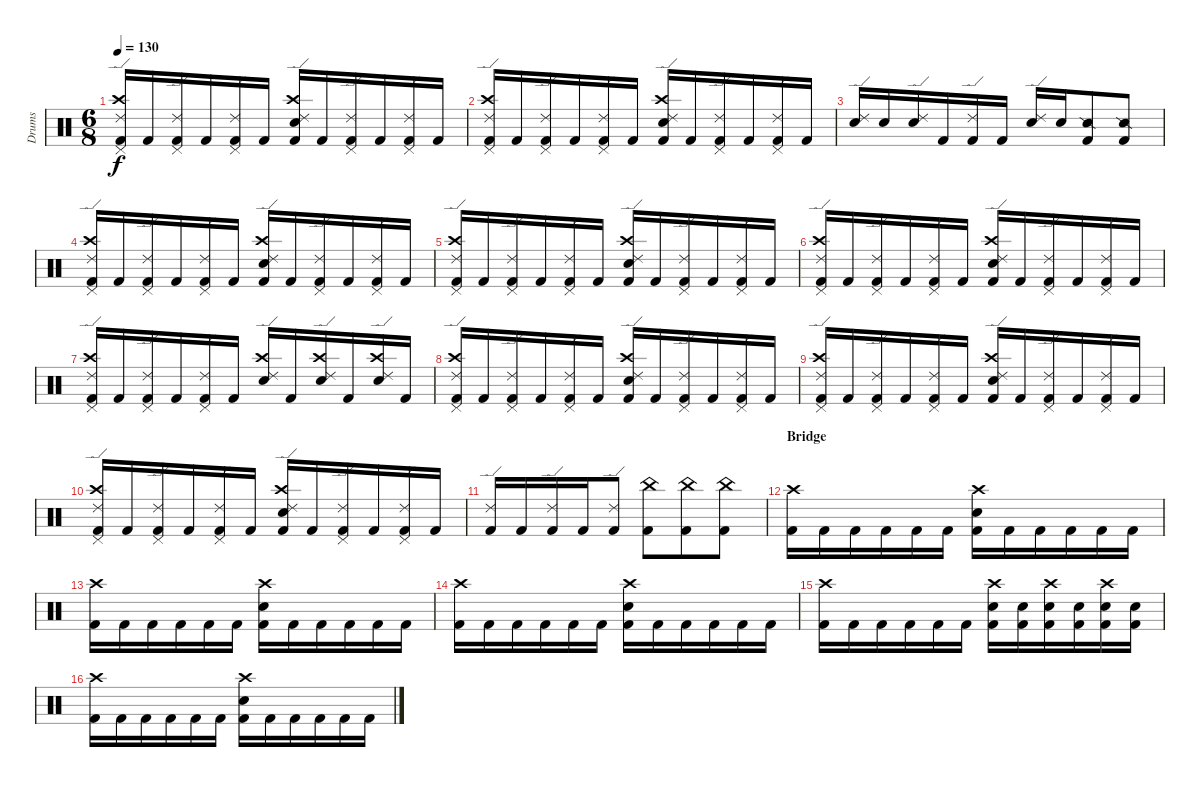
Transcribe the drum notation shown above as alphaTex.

\track ("Drums" "Drums") {instrument percussion}
\staff {score}
\articulation defaults
\ts (6 8)
\tempo 130
\clef neutral
\ks c
("Ride (edge) 2" "Crash high (hit)" "Pedal Hi-Hat (hit)" "Kick (hit) 2").16{dy f} "Kick (hit) 2".16 ("Ride (edge) 2" "Pedal Hi-Hat (hit)" "Kick (hit) 2").16 "Kick (hit) 2".16 ("Ride (edge) 2" "Pedal Hi-Hat (hit)" "Kick (hit) 2").16 "Kick (hit) 2".16 ("Ride (edge) 2" "Crash high (hit)" "Electric Snare (hit)" "Kick (hit) 2").16 "Kick (hit) 2".16 ("Ride (edge) 2" "Pedal Hi-Hat (hit)" "Kick (hit) 2").16 "Kick (hit) 2".16 ("Ride (edge) 2" "Pedal Hi-Hat (hit)" "Kick (hit) 2").16 "Kick (hit) 2".16 |
("Ride (edge) 2" "Crash high (hit)" "Pedal Hi-Hat (hit)" "Kick (hit) 2").16 "Kick (hit) 2".16 ("Ride (edge) 2" "Pedal Hi-Hat (hit)" "Kick (hit) 2").16 "Kick (hit) 2".16 ("Ride (edge) 2" "Pedal Hi-Hat (hit)" "Kick (hit) 2").16 "Kick (hit) 2".16 ("Ride (edge) 2" "Crash high (hit)" "Electric Snare (hit)" "Kick (hit) 2").16 "Kick (hit) 2".16 ("Ride (edge) 2" "Pedal Hi-Hat (hit)" "Kick (hit) 2").16 "Kick (hit) 2".16 ("Ride (edge) 2" "Pedal Hi-Hat (hit)" "Kick (hit) 2").16 "Kick (hit) 2".16 |
("Ride (edge) 2" "Electric Snare (hit)").16 "Electric Snare (hit)".16 ("Ride (edge) 2" "Electric Snare (hit)").16 "Kick (hit) 2".16 ("Ride (edge) 2" "Kick (hit) 2").16 "Kick (hit) 2".16 ("Ride (edge) 2" "Electric Snare (hit)").16 "Electric Snare (hit)".16 ("Snare (side stick) 2" "Kick (hit) 2").8 ("Snare (side stick) 2" "Kick (hit) 2").8 |
("Ride (edge) 2" "Crash high (hit)" "Pedal Hi-Hat (hit)" "Kick (hit) 2").16 "Kick (hit) 2".16 ("Ride (edge) 2" "Pedal Hi-Hat (hit)" "Kick (hit) 2").16 "Kick (hit) 2".16 ("Ride (edge) 2" "Pedal Hi-Hat (hit)" "Kick (hit) 2").16 "Kick (hit) 2".16 ("Ride (edge) 2" "Crash high (hit)" "Electric Snare (hit)" "Kick (hit) 2").16 "Kick (hit) 2".16 ("Ride (edge) 2" "Pedal Hi-Hat (hit)" "Kick (hit) 2").16 "Kick (hit) 2".16 ("Ride (edge) 2" "Pedal Hi-Hat (hit)" "Kick (hit) 2").16 "Kick (hit) 2".16 |
("Ride (edge) 2" "Crash high (hit)" "Pedal Hi-Hat (hit)" "Kick (hit) 2").16 "Kick (hit) 2".16 ("Ride (edge) 2" "Pedal Hi-Hat (hit)" "Kick (hit) 2").16 "Kick (hit) 2".16 ("Ride (edge) 2" "Pedal Hi-Hat (hit)" "Kick (hit) 2").16 "Kick (hit) 2".16 ("Ride (edge) 2" "Crash high (hit)" "Electric Snare (hit)" "Kick (hit) 2").16 "Kick (hit) 2".16 ("Ride (edge) 2" "Pedal Hi-Hat (hit)" "Kick (hit) 2").16 "Kick (hit) 2".16 ("Ride (edge) 2" "Pedal Hi-Hat (hit)" "Kick (hit) 2").16 "Kick (hit) 2".16 |
("Ride (edge) 2" "Crash high (hit)" "Pedal Hi-Hat (hit)" "Kick (hit) 2").16 "Kick (hit) 2".16 ("Ride (edge) 2" "Pedal Hi-Hat (hit)" "Kick (hit) 2").16 "Kick (hit) 2".16 ("Ride (edge) 2" "Pedal Hi-Hat (hit)" "Kick (hit) 2").16 "Kick (hit) 2".16 ("Ride (edge) 2" "Crash high (hit)" "Electric Snare (hit)" "Kick (hit) 2").16 "Kick (hit) 2".16 ("Ride (edge) 2" "Pedal Hi-Hat (hit)" "Kick (hit) 2").16 "Kick (hit) 2".16 ("Ride (edge) 2" "Pedal Hi-Hat (hit)" "Kick (hit) 2").16 "Kick (hit) 2".16 |
("Ride (edge) 2" "Crash high (hit)" "Pedal Hi-Hat (hit)" "Kick (hit) 2").16 "Kick (hit) 2".16 ("Ride (edge) 2" "Pedal Hi-Hat (hit)" "Kick (hit) 2").16 "Kick (hit) 2".16 ("Ride (edge) 2" "Pedal Hi-Hat (hit)" "Kick (hit) 2").16 "Kick (hit) 2".16 ("Ride (edge) 2" "Crash high (hit)" "Electric Snare (hit)").16 "Kick (hit) 2".16 ("Ride (edge) 2" "Crash high (hit)" "Electric Snare (hit)").16 "Kick (hit) 2".16 ("Ride (edge) 2" "Crash high (hit)" "Electric Snare (hit)").16 "Kick (hit) 2".16 |
("Ride (edge) 2" "Crash high (hit)" "Pedal Hi-Hat (hit)" "Kick (hit) 2").16 "Kick (hit) 2".16 ("Ride (edge) 2" "Pedal Hi-Hat (hit)" "Kick (hit) 2").16 "Kick (hit) 2".16 ("Ride (edge) 2" "Pedal Hi-Hat (hit)" "Kick (hit) 2").16 "Kick (hit) 2".16 ("Ride (edge) 2" "Crash high (hit)" "Electric Snare (hit)" "Kick (hit) 2").16 "Kick (hit) 2".16 ("Ride (edge) 2" "Pedal Hi-Hat (hit)" "Kick (hit) 2").16 "Kick (hit) 2".16 ("Ride (edge) 2" "Pedal Hi-Hat (hit)" "Kick (hit) 2").16 "Kick (hit) 2".16 |
("Ride (edge) 2" "Crash high (hit)" "Pedal Hi-Hat (hit)" "Kick (hit) 2").16 "Kick (hit) 2".16 ("Ride (edge) 2" "Pedal Hi-Hat (hit)" "Kick (hit) 2").16 "Kick (hit) 2".16 ("Ride (edge) 2" "Pedal Hi-Hat (hit)" "Kick (hit) 2").16 "Kick (hit) 2".16 ("Ride (edge) 2" "Crash high (hit)" "Electric Snare (hit)" "Kick (hit) 2").16 "Kick (hit) 2".16 ("Ride (edge) 2" "Pedal Hi-Hat (hit)" "Kick (hit) 2").16 "Kick (hit) 2".16 ("Ride (edge) 2" "Pedal Hi-Hat (hit)" "Kick (hit) 2").16 "Kick (hit) 2".16 |
("Ride (edge) 2" "Crash high (hit)" "Pedal Hi-Hat (hit)" "Kick (hit) 2").16 "Kick (hit) 2".16 ("Ride (edge) 2" "Pedal Hi-Hat (hit)" "Kick (hit) 2").16 "Kick (hit) 2".16 ("Ride (edge) 2" "Pedal Hi-Hat (hit)" "Kick (hit) 2").16 "Kick (hit) 2".16 ("Ride (edge) 2" "Crash high (hit)" "Electric Snare (hit)" "Kick (hit) 2").16 "Kick (hit) 2".16 ("Ride (edge) 2" "Pedal Hi-Hat (hit)" "Kick (hit) 2").16 "Kick (hit) 2".16 ("Ride (edge) 2" "Pedal Hi-Hat (hit)" "Kick (hit) 2").16 "Kick (hit) 2".16 |
("Ride (edge) 2" "Kick (hit) 2").16 "Kick (hit) 2".16 ("Ride (edge) 2" "Kick (hit) 2").16 "Kick (hit) 2".16 ("Ride (edge) 2" "Kick (hit) 2").8 ("China (hit)" "Kick (hit) 2").8 ("China (hit)" "Kick (hit) 2").8 ("China (hit)" "Kick (hit) 2").8 |
\section ("" "Bridge")
("Crash high (hit)" "Kick (hit) 2").16 "Kick (hit) 2".16 "Kick (hit) 2".16 "Kick (hit) 2".16 "Kick (hit) 2".16 "Kick (hit) 2".16 ("Crash high (hit)" "Electric Snare (hit)" "Kick (hit) 2").16 "Kick (hit) 2".16 "Kick (hit) 2".16 "Kick (hit) 2".16 "Kick (hit) 2".16 "Kick (hit) 2".16 |
("Crash high (hit)" "Kick (hit) 2").16 "Kick (hit) 2".16 "Kick (hit) 2".16 "Kick (hit) 2".16 "Kick (hit) 2".16 "Kick (hit) 2".16 ("Crash high (hit)" "Electric Snare (hit)" "Kick (hit) 2").16 "Kick (hit) 2".16 "Kick (hit) 2".16 "Kick (hit) 2".16 "Kick (hit) 2".16 "Kick (hit) 2".16 |
("Crash high (hit)" "Kick (hit) 2").16 "Kick (hit) 2".16 "Kick (hit) 2".16 "Kick (hit) 2".16 "Kick (hit) 2".16 "Kick (hit) 2".16 ("Crash high (hit)" "Electric Snare (hit)" "Kick (hit) 2").16 "Kick (hit) 2".16 "Kick (hit) 2".16 "Kick (hit) 2".16 "Kick (hit) 2".16 "Kick (hit) 2".16 |
("Crash high (hit)" "Kick (hit) 2").16 "Kick (hit) 2".16 "Kick (hit) 2".16 "Kick (hit) 2".16 "Kick (hit) 2".16 "Kick (hit) 2".16 ("Crash high (hit)" "Electric Snare (hit)" "Kick (hit) 2").16 ("Electric Snare (hit)" "Kick (hit) 2").16 ("Crash high (hit)" "Electric Snare (hit)" "Kick (hit) 2").16 ("Electric Snare (hit)" "Kick (hit) 2").16 ("Crash high (hit)" "Electric Snare (hit)" "Kick (hit) 2").16 ("Electric Snare (hit)" "Kick (hit) 2").16 |
("Crash high (hit)" "Kick (hit) 2").16 "Kick (hit) 2".16 "Kick (hit) 2".16 "Kick (hit) 2".16 "Kick (hit) 2".16 "Kick (hit) 2".16 ("Crash high (hit)" "Electric Snare (hit)" "Kick (hit) 2").16 "Kick (hit) 2".16 "Kick (hit) 2".16 "Kick (hit) 2".16 "Kick (hit) 2".16 "Kick (hit) 2".16
